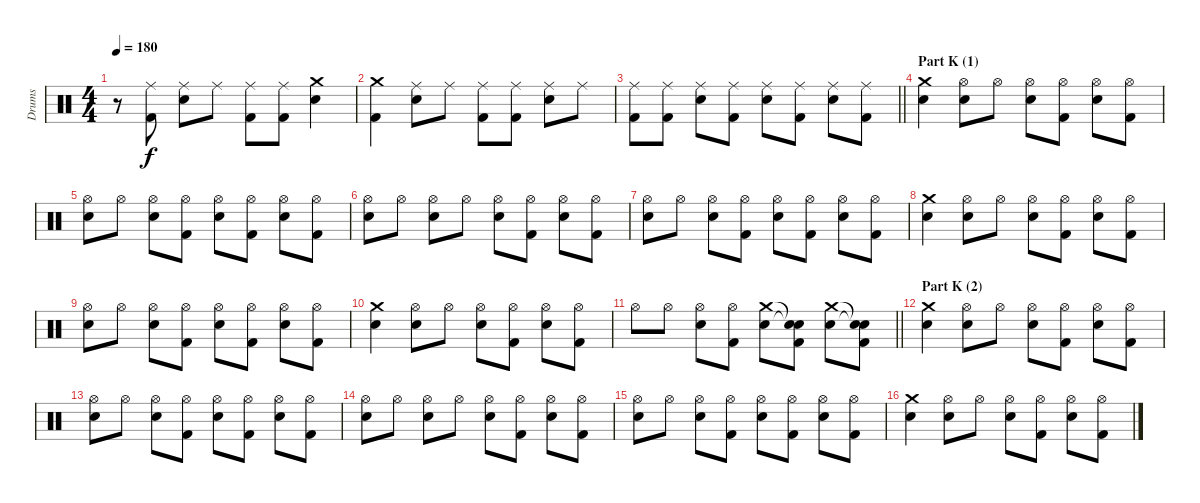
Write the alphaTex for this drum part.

\track ("Drums" "Drums") {instrument percussion}
\staff {score}
\articulation defaults
\ts (4 4)
\tempo 180
\clef neutral
\ks c
r.8{dy f} ("Ride (middle)" "Kick (hit) 2").8 ("Ride (middle)" "Electric Snare (hit)").8 "Ride (middle)".8 ("Ride (middle)" "Kick (hit) 2").8 ("Ride (middle)" "Kick (hit) 2").8 ("Crash medium (hit)" "Electric Snare (hit)").4 |
("Crash medium (hit)" "Kick (hit) 2").4 ("Ride (middle)" "Electric Snare (hit)").8 "Ride (middle)".8 ("Ride (middle)" "Kick (hit) 2").8 ("Ride (middle)" "Kick (hit) 2").8 ("Ride (middle)" "Electric Snare (hit)").8 "Ride (middle)".8 |
\barLineRight lightlight
("Ride (middle)" "Kick (hit) 2").8 ("Ride (middle)" "Kick (hit) 2").8 ("Ride (middle)" "Electric Snare (hit)").8 ("Ride (middle)" "Kick (hit) 2").8 ("Ride (middle)" "Electric Snare (hit)").8 ("Ride (middle)" "Kick (hit) 2").8 ("Ride (middle)" "Electric Snare (hit)").8 ("Ride (middle)" "Kick (hit) 2").8 |
\section ("" "Part K (1)")
("Crash medium (hit)" "Electric Snare (hit)").4 ("Hi-Hat (open)" "Electric Snare (hit)").8 "Hi-Hat (open)".8 ("Hi-Hat (open)" "Electric Snare (hit)").8 ("Hi-Hat (open)" "Kick (hit) 2").8 ("Hi-Hat (open)" "Electric Snare (hit)").8 ("Hi-Hat (open)" "Kick (hit) 2").8 |
("Hi-Hat (open)" "Electric Snare (hit)").8 "Hi-Hat (open)".8 ("Hi-Hat (open)" "Electric Snare (hit)").8 ("Hi-Hat (open)" "Kick (hit) 2").8 ("Hi-Hat (open)" "Electric Snare (hit)").8 ("Hi-Hat (open)" "Kick (hit) 2").8 ("Hi-Hat (open)" "Electric Snare (hit)").8 ("Hi-Hat (open)" "Kick (hit) 2").8 |
("Hi-Hat (open)" "Electric Snare (hit)").8 "Hi-Hat (open)".8 ("Hi-Hat (open)" "Electric Snare (hit)").8 "Hi-Hat (open)".8 ("Hi-Hat (open)" "Electric Snare (hit)").8 ("Hi-Hat (open)" "Kick (hit) 2").8 ("Hi-Hat (open)" "Electric Snare (hit)").8 ("Hi-Hat (open)" "Kick (hit) 2").8 |
("Hi-Hat (open)" "Electric Snare (hit)").8 "Hi-Hat (open)".8 ("Hi-Hat (open)" "Electric Snare (hit)").8 ("Hi-Hat (open)" "Kick (hit) 2").8 ("Hi-Hat (open)" "Electric Snare (hit)").8 ("Hi-Hat (open)" "Kick (hit) 2").8 ("Hi-Hat (open)" "Electric Snare (hit)").8 ("Hi-Hat (open)" "Kick (hit) 2").8 |
("Crash medium (hit)" "Electric Snare (hit)").4 ("Hi-Hat (open)" "Electric Snare (hit)").8 "Hi-Hat (open)".8 ("Hi-Hat (open)" "Electric Snare (hit)").8 ("Hi-Hat (open)" "Kick (hit) 2").8 ("Hi-Hat (open)" "Electric Snare (hit)").8 ("Hi-Hat (open)" "Kick (hit) 2").8 |
("Hi-Hat (open)" "Electric Snare (hit)").8 "Hi-Hat (open)".8 ("Hi-Hat (open)" "Electric Snare (hit)").8 ("Hi-Hat (open)" "Kick (hit) 2").8 ("Hi-Hat (open)" "Electric Snare (hit)").8 ("Hi-Hat (open)" "Kick (hit) 2").8 ("Hi-Hat (open)" "Electric Snare (hit)").8 ("Hi-Hat (open)" "Kick (hit) 2").8 |
("Crash medium (hit)" "Electric Snare (hit)").4 ("Hi-Hat (open)" "Electric Snare (hit)").8 "Hi-Hat (open)".8 ("Hi-Hat (open)" "Electric Snare (hit)").8 ("Hi-Hat (open)" "Kick (hit) 2").8 ("Hi-Hat (open)" "Electric Snare (hit)").8 ("Hi-Hat (open)" "Kick (hit) 2").8 |
\barLineRight lightlight "Hi-Hat (open)".8 "Hi-Hat (open)".8
("Hi-Hat (open)" "Electric Snare (hit)").8 ("Hi-Hat (open)" "Kick (hit) 2").8 ("Crash medium (hit)" "Electric Snare (hit)").8 ("Snare (hit)"{t} "Snare (hit)"{t} "Kick (hit) 2").8 ("Crash medium (hit)" "Electric Snare (hit)").8 ("Snare (hit)"{t} "Snare (hit)"{t} "Kick (hit) 2").8 |
\section ("" "Part K (2)")
("Crash medium (hit)" "Electric Snare (hit)").4 ("Hi-Hat (open)" "Electric Snare (hit)").8 "Hi-Hat (open)".8 ("Hi-Hat (open)" "Electric Snare (hit)").8 ("Hi-Hat (open)" "Kick (hit) 2").8 ("Hi-Hat (open)" "Electric Snare (hit)").8 ("Hi-Hat (open)" "Kick (hit) 2").8 |
("Hi-Hat (open)" "Electric Snare (hit)").8 "Hi-Hat (open)".8 ("Hi-Hat (open)" "Electric Snare (hit)").8 ("Hi-Hat (open)" "Kick (hit) 2").8 ("Hi-Hat (open)" "Electric Snare (hit)").8 ("Hi-Hat (open)" "Kick (hit) 2").8 ("Hi-Hat (open)" "Electric Snare (hit)").8 ("Hi-Hat (open)" "Kick (hit) 2").8 |
("Hi-Hat (open)" "Electric Snare (hit)").8 "Hi-Hat (open)".8 ("Hi-Hat (open)" "Electric Snare (hit)").8 "Hi-Hat (open)".8 ("Hi-Hat (open)" "Electric Snare (hit)").8 ("Hi-Hat (open)" "Kick (hit) 2").8 ("Hi-Hat (open)" "Electric Snare (hit)").8 ("Hi-Hat (open)" "Kick (hit) 2").8 |
("Hi-Hat (open)" "Electric Snare (hit)").8 "Hi-Hat (open)".8 ("Hi-Hat (open)" "Electric Snare (hit)").8 ("Hi-Hat (open)" "Kick (hit) 2").8 ("Hi-Hat (open)" "Electric Snare (hit)").8 ("Hi-Hat (open)" "Kick (hit) 2").8 ("Hi-Hat (open)" "Electric Snare (hit)").8 ("Hi-Hat (open)" "Kick (hit) 2").8 |
("Crash medium (hit)" "Electric Snare (hit)").4 ("Hi-Hat (open)" "Electric Snare (hit)").8 "Hi-Hat (open)".8 ("Hi-Hat (open)" "Electric Snare (hit)").8 ("Hi-Hat (open)" "Kick (hit) 2").8 ("Hi-Hat (open)" "Electric Snare (hit)").8 ("Hi-Hat (open)" "Kick (hit) 2").8
